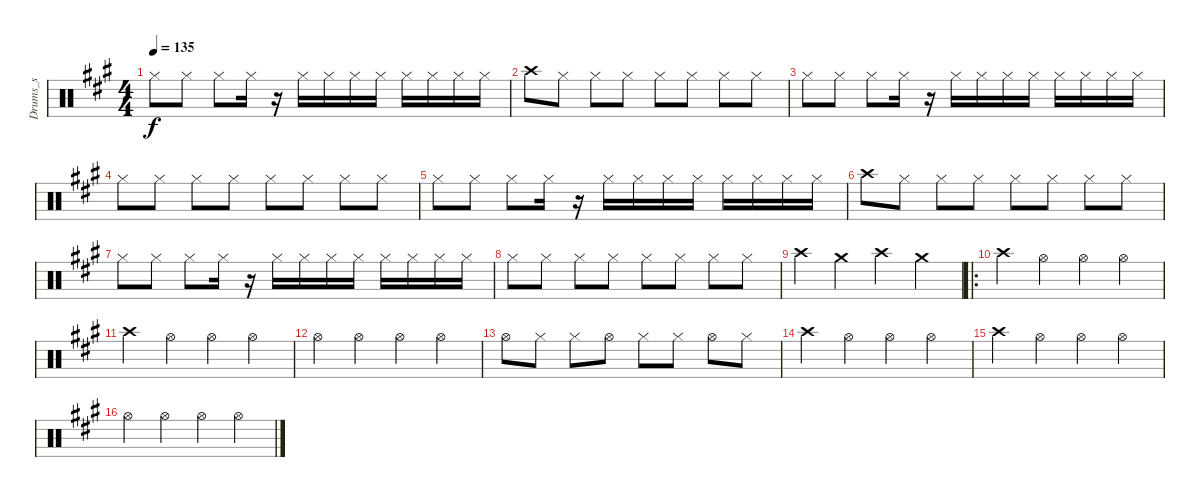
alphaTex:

\track ("Drums_s" "Drums_s") {instrument percussion}
\staff {score}
\articulation defaults
\ts (4 4)
\tempo 135
\clef neutral
\ks a "Hi-Hat (closed)".8{dy f} "Hi-Hat (closed)".8 "Hi-Hat (closed)".8 "Hi-Hat (closed)".16
r.16 "Hi-Hat (closed)".16 "Hi-Hat (closed)".16 "Hi-Hat (closed)".16 "Hi-Hat (closed)".16 "Hi-Hat (closed)".16 "Hi-Hat (closed)".16 "Hi-Hat (closed)".16 "Hi-Hat (closed)".16 |
"Crash high (hit)".8 "Hi-Hat (closed)".8 "Hi-Hat (closed)".8 "Hi-Hat (closed)".8 "Hi-Hat (closed)".8 "Hi-Hat (closed)".8 "Hi-Hat (closed)".8 "Hi-Hat (closed)".8 |
"Hi-Hat (closed)".8 "Hi-Hat (closed)".8 "Hi-Hat (closed)".8 "Hi-Hat (closed)".16 r.16 "Hi-Hat (closed)".16 "Hi-Hat (closed)".16 "Hi-Hat (closed)".16 "Hi-Hat (closed)".16 "Hi-Hat (closed)".16 "Hi-Hat (closed)".16 "Hi-Hat (closed)".16 "Hi-Hat (closed)".16 |
"Hi-Hat (closed)".8 "Hi-Hat (closed)".8 "Hi-Hat (closed)".8 "Hi-Hat (closed)".8 "Hi-Hat (closed)".8 "Hi-Hat (closed)".8 "Hi-Hat (closed)".8 "Hi-Hat (closed)".8 |
"Hi-Hat (closed)".8 "Hi-Hat (closed)".8 "Hi-Hat (closed)".8 "Hi-Hat (closed)".16 r.16 "Hi-Hat (closed)".16 "Hi-Hat (closed)".16 "Hi-Hat (closed)".16 "Hi-Hat (closed)".16 "Hi-Hat (closed)".16 "Hi-Hat (closed)".16 "Hi-Hat (closed)".16 "Hi-Hat (closed)".16 |
"Crash high (hit)".8 "Hi-Hat (closed)".8 "Hi-Hat (closed)".8 "Hi-Hat (closed)".8 "Hi-Hat (closed)".8 "Hi-Hat (closed)".8 "Hi-Hat (closed)".8 "Hi-Hat (closed)".8 |
"Hi-Hat (closed)".8 "Hi-Hat (closed)".8 "Hi-Hat (closed)".8 "Hi-Hat (closed)".16 r.16 "Hi-Hat (closed)".16 "Hi-Hat (closed)".16 "Hi-Hat (closed)".16 "Hi-Hat (closed)".16 "Hi-Hat (closed)".16 "Hi-Hat (closed)".16 "Hi-Hat (closed)".16 "Hi-Hat (closed)".16 |
"Hi-Hat (closed)".8 "Hi-Hat (closed)".8 "Hi-Hat (closed)".8 "Hi-Hat (closed)".8 "Hi-Hat (closed)".8 "Hi-Hat (closed)".8 "Hi-Hat (closed)".8 "Hi-Hat (closed)".8 |
"Crash high (hit)".4 "Crash medium (hit)".4 "Crash high (hit)".4 "Crash medium (hit)".4 |
\ro "Crash high (hit)".4 "Hi-Hat (open)".4 "Hi-Hat (open)".4 "Hi-Hat (open)".4
|
"Crash high (hit)".4 "Hi-Hat (open)".4 "Hi-Hat (open)".4 "Hi-Hat (open)".4 |
"Hi-Hat (open)".4 "Hi-Hat (open)".4 "Hi-Hat (open)".4 "Hi-Hat (open)".4 |
"Hi-Hat (open)".8 "Hi-Hat (closed)".8 "Hi-Hat (closed)".8 "Hi-Hat (open)".8 "Hi-Hat (closed)".8 "Hi-Hat (closed)".8 "Hi-Hat (open)".8 "Hi-Hat (closed)".8 |
"Crash high (hit)".4 "Hi-Hat (open)".4 "Hi-Hat (open)".4 "Hi-Hat (open)".4 |
"Crash high (hit)".4 "Hi-Hat (open)".4 "Hi-Hat (open)".4 "Hi-Hat (open)".4 |
"Hi-Hat (open)".4 "Hi-Hat (open)".4 "Hi-Hat (open)".4 "Hi-Hat (open)".4
